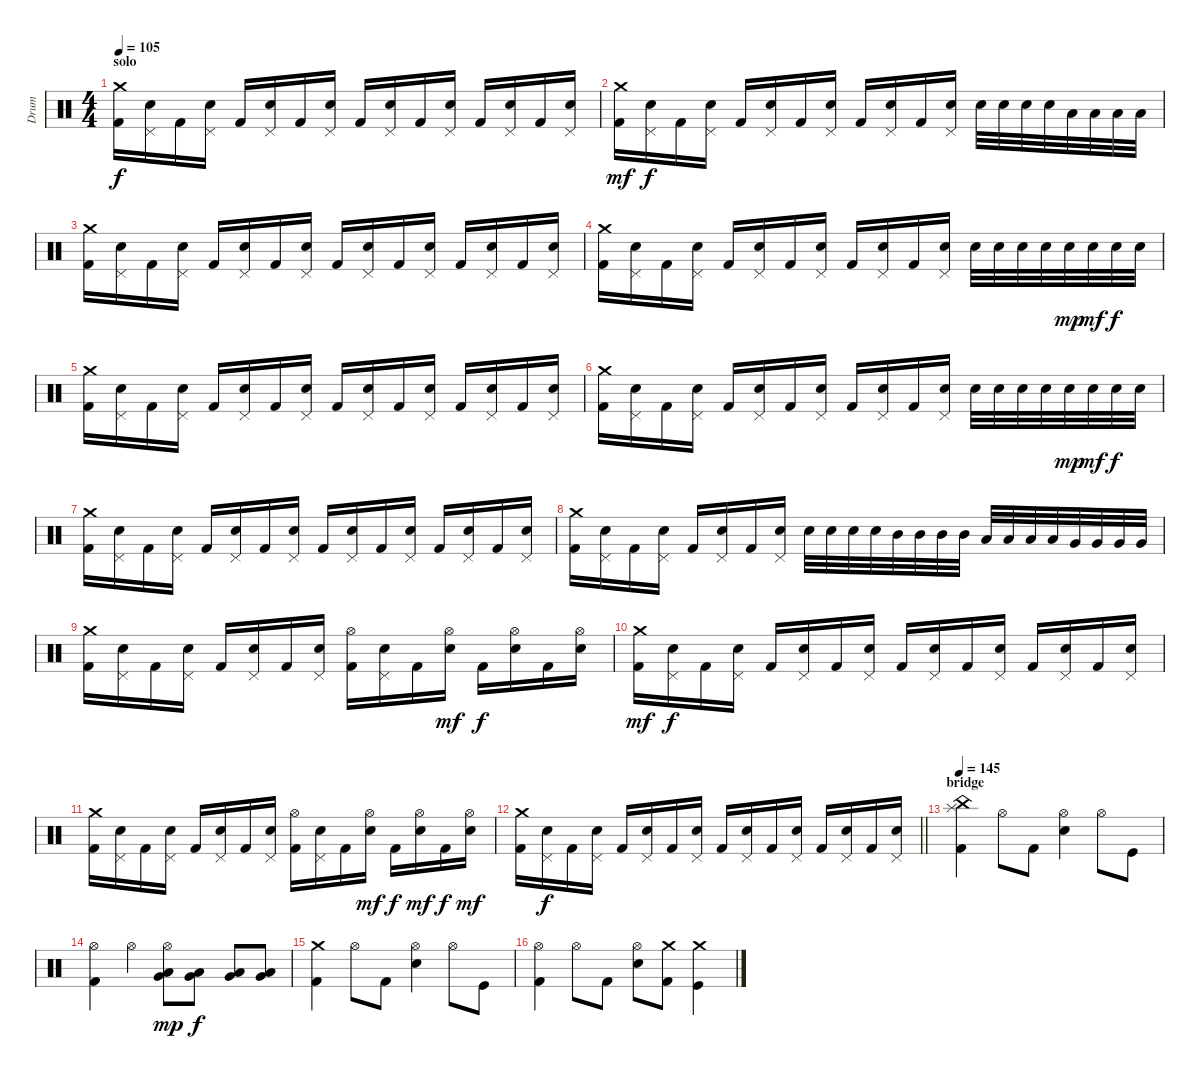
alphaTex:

\track ("Drum" "Drum") {instrument percussion}
\staff {score}
\articulation defaults
\ts (4 4)
\section ("" "solo")
\tempo 105
\clef neutral
\ks c
("Crash medium (hit)" "Kick (hit) 2").16{dy f} ("Pedal Hi-Hat (hit)" "Snare (hit) 2").16 "Kick (hit) 2".16 ("Pedal Hi-Hat (hit)" "Snare (hit) 2").16 "Kick (hit) 2".16 ("Pedal Hi-Hat (hit)" "Snare (hit) 2").16 "Kick (hit) 2".16 ("Pedal Hi-Hat (hit)" "Snare (hit) 2").16 "Kick (hit) 2".16 ("Pedal Hi-Hat (hit)" "Snare (hit) 2").16 "Kick (hit) 2".16 ("Pedal Hi-Hat (hit)" "Snare (hit) 2").16 "Kick (hit) 2".16 ("Pedal Hi-Hat (hit)" "Snare (hit) 2").16 "Kick (hit) 2".16 ("Pedal Hi-Hat (hit)" "Snare (hit) 2").16 |
("Crash medium (hit)" "Kick (hit) 2").16{dy mf} ("Pedal Hi-Hat (hit)" "Snare (hit) 2").16{dy f} "Kick (hit) 2".16 ("Pedal Hi-Hat (hit)" "Snare (hit) 2").16 "Kick (hit) 2".16 ("Pedal Hi-Hat (hit)" "Snare (hit) 2").16 "Kick (hit) 2".16 ("Pedal Hi-Hat (hit)" "Snare (hit) 2").16 "Kick (hit) 2".16 ("Pedal Hi-Hat (hit)" "Snare (hit) 2").16 "Kick (hit) 2".16 ("Pedal Hi-Hat (hit)" "Snare (hit) 2").16 "Snare (hit) 2".32 "Snare (hit) 2".32 "Snare (hit) 2".32 "Snare (hit) 2".32 "Low Tom (hit)".32 "Low Tom (hit)".32 "Low Tom (hit)".32 "Low Tom (hit)".32 |
("Crash medium (hit)" "Kick (hit) 2").16 ("Pedal Hi-Hat (hit)" "Snare (hit) 2").16 "Kick (hit) 2".16 ("Pedal Hi-Hat (hit)" "Snare (hit) 2").16 "Kick (hit) 2".16 ("Pedal Hi-Hat (hit)" "Snare (hit) 2").16 "Kick (hit) 2".16 ("Pedal Hi-Hat (hit)" "Snare (hit) 2").16 "Kick (hit) 2".16 ("Pedal Hi-Hat (hit)" "Snare (hit) 2").16 "Kick (hit) 2".16 ("Pedal Hi-Hat (hit)" "Snare (hit) 2").16 "Kick (hit) 2".16 ("Pedal Hi-Hat (hit)" "Snare (hit) 2").16 "Kick (hit) 2".16 ("Pedal Hi-Hat (hit)" "Snare (hit) 2").16 |
("Crash medium (hit)" "Kick (hit) 2").16 ("Pedal Hi-Hat (hit)" "Snare (hit) 2").16 "Kick (hit) 2".16 ("Pedal Hi-Hat (hit)" "Snare (hit) 2").16 "Kick (hit) 2".16 ("Pedal Hi-Hat (hit)" "Snare (hit) 2").16 "Kick (hit) 2".16 ("Pedal Hi-Hat (hit)" "Snare (hit) 2").16 "Kick (hit) 2".16 ("Pedal Hi-Hat (hit)" "Snare (hit) 2").16 "Kick (hit) 2".16 ("Pedal Hi-Hat (hit)" "Snare (hit) 2").16 "Snare (hit) 2".32 "Snare (hit) 2".32 "Snare (hit) 2".32 "Snare (hit) 2".32 "Snare (hit) 2".32{dy mp} "Snare (hit) 2".32{dy mf} "Snare (hit) 2".32{dy f} "Snare (hit) 2".32 |
("Crash medium (hit)" "Kick (hit) 2").16 ("Pedal Hi-Hat (hit)" "Snare (hit) 2").16 "Kick (hit) 2".16 ("Pedal Hi-Hat (hit)" "Snare (hit) 2").16 "Kick (hit) 2".16 ("Pedal Hi-Hat (hit)" "Snare (hit) 2").16 "Kick (hit) 2".16 ("Pedal Hi-Hat (hit)" "Snare (hit) 2").16 "Kick (hit) 2".16 ("Pedal Hi-Hat (hit)" "Snare (hit) 2").16 "Kick (hit) 2".16 ("Pedal Hi-Hat (hit)" "Snare (hit) 2").16 "Kick (hit) 2".16 ("Pedal Hi-Hat (hit)" "Snare (hit) 2").16 "Kick (hit) 2".16 ("Pedal Hi-Hat (hit)" "Snare (hit) 2").16 |
("Crash medium (hit)" "Kick (hit) 2").16 ("Pedal Hi-Hat (hit)" "Snare (hit) 2").16 "Kick (hit) 2".16 ("Pedal Hi-Hat (hit)" "Snare (hit) 2").16 "Kick (hit) 2".16 ("Pedal Hi-Hat (hit)" "Snare (hit) 2").16 "Kick (hit) 2".16 ("Pedal Hi-Hat (hit)" "Snare (hit) 2").16 "Kick (hit) 2".16 ("Pedal Hi-Hat (hit)" "Snare (hit) 2").16 "Kick (hit) 2".16 ("Pedal Hi-Hat (hit)" "Snare (hit) 2").16 "Snare (hit) 2".32 "Snare (hit) 2".32 "Snare (hit) 2".32 "Snare (hit) 2".32 "Snare (hit) 2".32{dy mp} "Snare (hit) 2".32{dy mf} "Snare (hit) 2".32{dy f} "Snare (hit) 2".32 |
("Crash medium (hit)" "Kick (hit) 2").16 ("Pedal Hi-Hat (hit)" "Snare (hit) 2").16 "Kick (hit) 2".16 ("Pedal Hi-Hat (hit)" "Snare (hit) 2").16 "Kick (hit) 2".16 ("Pedal Hi-Hat (hit)" "Snare (hit) 2").16 "Kick (hit) 2".16 ("Pedal Hi-Hat (hit)" "Snare (hit) 2").16 "Kick (hit) 2".16 ("Pedal Hi-Hat (hit)" "Snare (hit) 2").16 "Kick (hit) 2".16 ("Pedal Hi-Hat (hit)" "Snare (hit) 2").16 "Kick (hit) 2".16 ("Pedal Hi-Hat (hit)" "Snare (hit) 2").16 "Kick (hit) 2".16 ("Pedal Hi-Hat (hit)" "Snare (hit) 2").16 |
("Crash medium (hit)" "Kick (hit) 2").16 ("Pedal Hi-Hat (hit)" "Snare (hit) 2").16 "Kick (hit) 2".16 ("Pedal Hi-Hat (hit)" "Snare (hit) 2").16 "Kick (hit) 2".16 ("Pedal Hi-Hat (hit)" "Snare (hit) 2").16 "Kick (hit) 2".16 ("Pedal Hi-Hat (hit)" "Snare (hit) 2").16 "Snare (hit) 2".32 "Snare (hit) 2".32 "Snare (hit) 2".32 "Snare (hit) 2".32 "Mid Tom (hit)".32 "Mid Tom (hit)".32 "Mid Tom (hit)".32 "Mid Tom (hit)".32 "Low Tom (hit)".32 "Low Tom (hit)".32 "Low Tom (hit)".32 "Low Tom (hit)".32 "Very Low Tom (hit)".32 "Very Low Tom (hit)".32 "Very Low Tom (hit)".32 "Very Low Tom (hit)".32 |
("Crash medium (hit)" "Kick (hit) 2").16 ("Pedal Hi-Hat (hit)" "Snare (hit) 2").16 "Kick (hit) 2".16 ("Pedal Hi-Hat (hit)" "Snare (hit) 2").16 "Kick (hit) 2".16 ("Pedal Hi-Hat (hit)" "Snare (hit) 2").16 "Kick (hit) 2".16 ("Pedal Hi-Hat (hit)" "Snare (hit) 2").16 ("Hi-Hat (open)" "Kick (hit) 2").16 ("Pedal Hi-Hat (hit)" "Snare (hit) 2").16 "Kick (hit) 2".16 ("Hi-Hat (open)" "Snare (hit) 2").16{dy mf} "Kick (hit) 2".16{dy f} ("Hi-Hat (open)" "Snare (hit) 2").16 "Kick (hit) 2".16 ("Hi-Hat (open)" "Snare (hit) 2").16 |
("Crash medium (hit)" "Kick (hit) 2").16{dy mf} ("Pedal Hi-Hat (hit)" "Snare (hit) 2").16{dy f} "Kick (hit) 2".16 ("Pedal Hi-Hat (hit)" "Snare (hit) 2").16 "Kick (hit) 2".16 ("Pedal Hi-Hat (hit)" "Snare (hit) 2").16 "Kick (hit) 2".16 ("Pedal Hi-Hat (hit)" "Snare (hit) 2").16 "Kick (hit) 2".16 ("Pedal Hi-Hat (hit)" "Snare (hit) 2").16 "Kick (hit) 2".16 ("Pedal Hi-Hat (hit)" "Snare (hit) 2").16 "Kick (hit) 2".16 ("Pedal Hi-Hat (hit)" "Snare (hit) 2").16 "Kick (hit) 2".16 ("Pedal Hi-Hat (hit)" "Snare (hit) 2").16 |
("Crash medium (hit)" "Kick (hit) 2").16 ("Pedal Hi-Hat (hit)" "Snare (hit) 2").16 "Kick (hit) 2".16 ("Pedal Hi-Hat (hit)" "Snare (hit) 2").16 "Kick (hit) 2".16 ("Pedal Hi-Hat (hit)" "Snare (hit) 2").16 "Kick (hit) 2".16 ("Pedal Hi-Hat (hit)" "Snare (hit) 2").16 ("Hi-Hat (open)" "Kick (hit) 2").16 ("Pedal Hi-Hat (hit)" "Snare (hit) 2").16 "Kick (hit) 2".16 ("Hi-Hat (open)" "Snare (hit) 2").16{dy mf} "Kick (hit) 2".16{dy f} ("Hi-Hat (open)" "Snare (hit) 2").16{dy mf} "Kick (hit) 2".16{dy f} ("Hi-Hat (open)" "Snare (hit) 2").16{dy mf} |
\barLineRight lightlight
("Crash medium (hit)" "Kick (hit) 2").16 ("Pedal Hi-Hat (hit)" "Snare (hit) 2").16{dy f} "Kick (hit) 2".16 ("Pedal Hi-Hat (hit)" "Snare (hit) 2").16 "Kick (hit) 2".16 ("Pedal Hi-Hat (hit)" "Snare (hit) 2").16 "Kick (hit) 2".16 ("Pedal Hi-Hat (hit)" "Snare (hit) 2").16 "Kick (hit) 2".16 ("Pedal Hi-Hat (hit)" "Snare (hit) 2").16 "Kick (hit) 2".16 ("Pedal Hi-Hat (hit)" "Snare (hit) 2").16 "Kick (hit) 2".16 ("Pedal Hi-Hat (hit)" "Snare (hit) 2").16 "Kick (hit) 2".16 ("Pedal Hi-Hat (hit)" "Snare (hit) 2").16 |
\section ("" "bridge")
\tempo 145
("Splash (hit)" "China (hit)" "Kick (hit) 2").4 "Hi-Hat (open)".8 "Kick (hit) 2".8 ("Hi-Hat (open)" "Snare (hit) 2").4 "Hi-Hat (open)".8 "Kick (hit)".8 |
("Hi-Hat (open)" "Kick (hit) 2").4 "Hi-Hat (open)".4 ("Hi-Hat (open)" "Low Tom (hit)" "Very Low Tom (hit)").8{dy mp} ("Low Tom (hit)" "Very Low Tom (hit)").8{dy f} ("Low Tom (hit)" "Very Low Tom (hit)").8 ("Low Tom (hit)" "Very Low Tom (hit)").8 |
("Crash medium (hit)" "Kick (hit) 2").4 "Hi-Hat (open)".8 "Kick (hit) 2".8 ("Hi-Hat (open)" "Snare (hit) 2").4 "Hi-Hat (open)".8 "Kick (hit)".8 |
("Hi-Hat (open)" "Kick (hit) 2").4 "Hi-Hat (open)".8 "Kick (hit) 2".8 ("Hi-Hat (open)" "Snare (hit) 2").8 ("Crash medium (hit)" "Kick (hit) 2").8 ("Crash medium (hit)" "Kick (hit)").4
